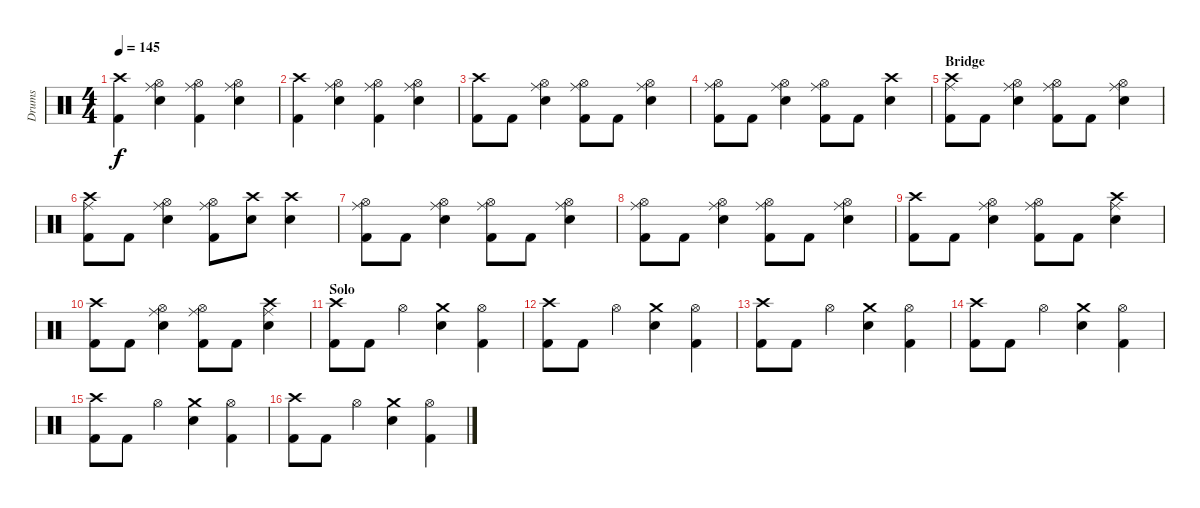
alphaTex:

\track ("Drums" "Drums") {instrument percussion}
\staff {score}
\articulation defaults
\ts (4 4)
\tempo 145
\clef neutral
\ks c
("Crash high (hit)" "Kick (hit) 2").4{dy f} ("Hi-Hat (open)" "Ride (middle)" "Snare (hit) 2").4 ("Hi-Hat (open)" "Ride (middle)" "Kick (hit) 2").4 ("Hi-Hat (open)" "Ride (middle)" "Snare (hit) 2").4 |
("Crash high (hit)" "Kick (hit) 2").4 ("Hi-Hat (open)" "Ride (middle)" "Snare (hit) 2").4 ("Hi-Hat (open)" "Ride (middle)" "Kick (hit) 2").4 ("Hi-Hat (open)" "Ride (middle)" "Snare (hit) 2").4 |
("Crash high (hit)" "Kick (hit) 2").8 "Kick (hit) 2".8 ("Hi-Hat (open)" "Ride (middle)" "Snare (hit) 2").4 ("Hi-Hat (open)" "Ride (middle)" "Kick (hit) 2").8 "Kick (hit) 2".8 ("Hi-Hat (open)" "Ride (middle)" "Snare (hit) 2").4 |
("Hi-Hat (open)" "Ride (middle)" "Kick (hit) 2").8 "Kick (hit) 2".8 ("Hi-Hat (open)" "Ride (middle)" "Snare (hit) 2").4 ("Hi-Hat (open)" "Ride (middle)" "Kick (hit) 2").8 "Kick (hit) 2".8 ("Crash high (hit)" "Snare (hit) 2").4 |
\section ("" "Bridge")
("Crash high (hit)" "Ride (middle)" "Kick (hit) 2").8 "Kick (hit) 2".8 ("Hi-Hat (open)" "Ride (middle)" "Snare (hit) 2").4 ("Hi-Hat (open)" "Ride (middle)" "Kick (hit) 2").8 "Kick (hit) 2".8 ("Hi-Hat (open)" "Ride (middle)" "Snare (hit) 2").4 |
("Crash high (hit)" "Ride (middle)" "Kick (hit) 2").8 "Kick (hit) 2".8 ("Hi-Hat (open)" "Ride (middle)" "Snare (hit) 2").4 ("Hi-Hat (open)" "Ride (middle)" "Kick (hit) 2").8 ("Crash high (hit)" "Snare (hit) 2").8 ("Crash high (hit)" "Snare (hit) 2").4 |
("Hi-Hat (open)" "Ride (middle)" "Kick (hit) 2").8 "Kick (hit) 2".8 ("Hi-Hat (open)" "Ride (middle)" "Snare (hit) 2").4 ("Hi-Hat (open)" "Ride (middle)" "Kick (hit) 2").8 "Kick (hit) 2".8 ("Hi-Hat (open)" "Ride (middle)" "Snare (hit) 2").4 |
("Hi-Hat (open)" "Ride (middle)" "Kick (hit) 2").8 "Kick (hit) 2".8 ("Hi-Hat (open)" "Ride (middle)" "Snare (hit) 2").4 ("Hi-Hat (open)" "Ride (middle)" "Kick (hit) 2").8 "Kick (hit) 2".8 ("Hi-Hat (open)" "Ride (middle)" "Snare (hit) 2").4 |
("Crash high (hit)" "Kick (hit) 2").8 "Kick (hit) 2".8 ("Hi-Hat (open)" "Ride (middle)" "Snare (hit) 2").4 ("Hi-Hat (open)" "Ride (middle)" "Kick (hit) 2").8 "Kick (hit) 2".8 ("Crash high (hit)" "Ride (middle)" "Snare (hit) 2").4 |
("Crash high (hit)" "Kick (hit) 2").8 "Kick (hit) 2".8 ("Hi-Hat (open)" "Ride (middle)" "Snare (hit) 2").4 ("Hi-Hat (open)" "Ride (middle)" "Kick (hit) 2").8 "Kick (hit) 2".8 ("Crash high (hit)" "Ride (middle)" "Snare (hit) 2").4 |
\section ("" "Solo")
("Crash high (hit)" "Kick (hit) 2").8 "Kick (hit) 2".8 "Hi-Hat (open)".4 ("Crash medium (hit)" "Snare (hit) 2").4 ("Hi-Hat (open)" "Kick (hit) 2").4 |
("Crash high (hit)" "Kick (hit) 2").8 "Kick (hit) 2".8 "Hi-Hat (open)".4 ("Crash medium (hit)" "Snare (hit) 2").4 ("Hi-Hat (open)" "Kick (hit) 2").4 |
("Crash high (hit)" "Kick (hit) 2").8 "Kick (hit) 2".8 "Hi-Hat (open)".4 ("Crash medium (hit)" "Snare (hit) 2").4 ("Hi-Hat (open)" "Kick (hit) 2").4 |
("Crash high (hit)" "Kick (hit) 2").8 "Kick (hit) 2".8 "Hi-Hat (open)".4 ("Crash medium (hit)" "Snare (hit) 2").4 ("Hi-Hat (open)" "Kick (hit) 2").4 |
("Crash high (hit)" "Kick (hit) 2").8 "Kick (hit) 2".8 "Hi-Hat (open)".4 ("Crash medium (hit)" "Snare (hit) 2").4 ("Hi-Hat (open)" "Kick (hit) 2").4 |
("Crash high (hit)" "Kick (hit) 2").8 "Kick (hit) 2".8 "Hi-Hat (open)".4 ("Crash medium (hit)" "Snare (hit) 2").4 ("Hi-Hat (open)" "Kick (hit) 2").4
